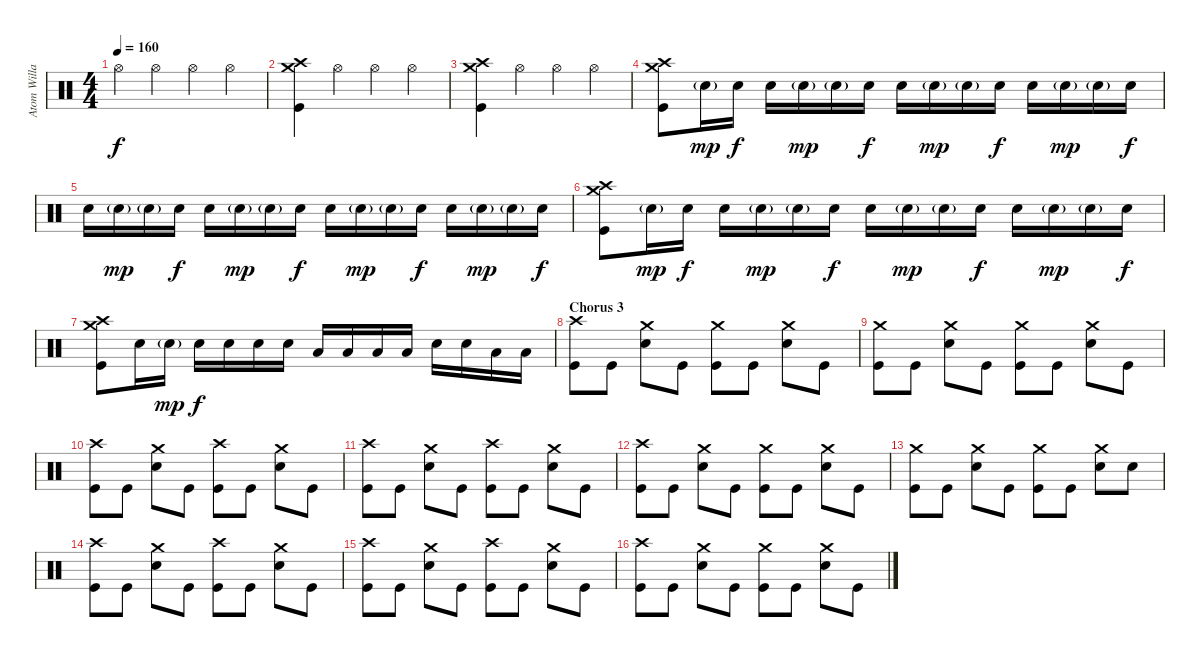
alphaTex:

\track ("Atom Willard - Drums" "Atom Willa") {instrument percussion}
\staff {score}
\articulation defaults
\ts (4 4)
\tempo 160
\clef neutral
\ks c "Hi-Hat (open)".4{dy f} "Hi-Hat (open)".4 "Hi-Hat (open)".4 "Hi-Hat (open)".4
|
("Crash medium (hit)" "Crash high (hit)" "Kick (hit)").4 "Hi-Hat (open)".4 "Hi-Hat (open)".4 "Hi-Hat (open)".4 |
("Crash medium (hit)" "Crash high (hit)" "Kick (hit)").4 "Hi-Hat (open)".4 "Hi-Hat (open)".4 "Hi-Hat (open)".4 |
("Crash high (hit)" "Crash medium (hit)" "Kick (hit)").8 "Electric Snare (hit)"{g}.16{dy mp} "Electric Snare (hit)".16{dy f} "Electric Snare (hit)".16 "Electric Snare (hit)"{g}.16{dy mp} "Electric Snare (hit)"{g}.16 "Electric Snare (hit)".16{dy f} "Electric Snare (hit)".16 "Electric Snare (hit)"{g}.16{dy mp} "Electric Snare (hit)"{g}.16 "Electric Snare (hit)".16{dy f} "Electric Snare (hit)".16 "Electric Snare (hit)"{g}.16{dy mp} "Electric Snare (hit)"{g}.16 "Electric Snare (hit)".16{dy f} |
"Electric Snare (hit)".16 "Electric Snare (hit)"{g}.16{dy mp} "Electric Snare (hit)"{g}.16 "Electric Snare (hit)".16{dy f} "Electric Snare (hit)".16 "Electric Snare (hit)"{g}.16{dy mp} "Electric Snare (hit)"{g}.16 "Electric Snare (hit)".16{dy f} "Electric Snare (hit)".16 "Electric Snare (hit)"{g}.16{dy mp} "Electric Snare (hit)"{g}.16 "Electric Snare (hit)".16{dy f} "Electric Snare (hit)".16 "Electric Snare (hit)"{g}.16{dy mp} "Electric Snare (hit)"{g}.16 "Electric Snare (hit)".16{dy f} |
("Crash high (hit)" "Crash medium (hit)" "Kick (hit)").8 "Electric Snare (hit)"{g}.16{dy mp} "Electric Snare (hit)".16{dy f} "Electric Snare (hit)".16 "Electric Snare (hit)"{g}.16{dy mp} "Electric Snare (hit)"{g}.16 "Electric Snare (hit)".16{dy f} "Electric Snare (hit)".16 "Electric Snare (hit)"{g}.16{dy mp} "Electric Snare (hit)"{g}.16 "Electric Snare (hit)".16{dy f} "Electric Snare (hit)".16 "Electric Snare (hit)"{g}.16{dy mp} "Electric Snare (hit)"{g}.16 "Electric Snare (hit)".16{dy f} |
("Crash high (hit)" "Crash medium (hit)" "Kick (hit)").8 "Electric Snare (hit)".16 "Electric Snare (hit)"{g}.16{dy mp} "Electric Snare (hit)".16{dy f} "Electric Snare (hit)".16 "Electric Snare (hit)".16 "Electric Snare (hit)".16 "Low Tom (hit)".16 "Low Tom (hit)".16 "Low Tom (hit)".16 "Low Tom (hit)".16 "Electric Snare (hit)".16 "Electric Snare (hit)".16 "Low Floor Tom (hit)".16 "Low Floor Tom (hit)".16 |
\section ("" "Chorus 3")
("Crash high (hit)" "Kick (hit)").8 "Kick (hit)".8 ("Crash medium (hit)" "Electric Snare (hit)").8 "Kick (hit)".8 ("Crash medium (hit)" "Kick (hit)").8 "Kick (hit)".8 ("Crash medium (hit)" "Electric Snare (hit)").8 "Kick (hit)".8 |
("Crash medium (hit)" "Kick (hit)").8 "Kick (hit)".8 ("Crash medium (hit)" "Electric Snare (hit)").8 "Kick (hit)".8 ("Crash medium (hit)" "Kick (hit)").8 "Kick (hit)".8 ("Crash medium (hit)" "Electric Snare (hit)").8 "Kick (hit)".8 |
("Crash high (hit)" "Kick (hit)").8 "Kick (hit)".8 ("Crash medium (hit)" "Electric Snare (hit)").8 "Kick (hit)".8 ("Crash high (hit)" "Kick (hit)").8 "Kick (hit)".8 ("Crash medium (hit)" "Electric Snare (hit)").8 "Kick (hit)".8 |
("Crash high (hit)" "Kick (hit)").8 "Kick (hit)".8 ("Crash medium (hit)" "Electric Snare (hit)").8 "Kick (hit)".8 ("Crash high (hit)" "Kick (hit)").8 "Kick (hit)".8 ("Crash medium (hit)" "Electric Snare (hit)").8 "Kick (hit)".8 |
("Crash high (hit)" "Kick (hit)").8 "Kick (hit)".8 ("Crash medium (hit)" "Electric Snare (hit)").8 "Kick (hit)".8 ("Crash medium (hit)" "Kick (hit)").8 "Kick (hit)".8 ("Crash medium (hit)" "Electric Snare (hit)").8 "Kick (hit)".8 |
("Crash medium (hit)" "Kick (hit)").8 "Kick (hit)".8 ("Crash medium (hit)" "Electric Snare (hit)").8 "Kick (hit)".8 ("Crash medium (hit)" "Kick (hit)").8 "Kick (hit)".8 ("Crash medium (hit)" "Electric Snare (hit)").8 "Electric Snare (hit)".8 |
("Crash high (hit)" "Kick (hit)").8 "Kick (hit)".8 ("Crash medium (hit)" "Electric Snare (hit)").8 "Kick (hit)".8 ("Crash high (hit)" "Kick (hit)").8 "Kick (hit)".8 ("Crash medium (hit)" "Electric Snare (hit)").8 "Kick (hit)".8 |
("Crash high (hit)" "Kick (hit)").8 "Kick (hit)".8 ("Crash medium (hit)" "Electric Snare (hit)").8 "Kick (hit)".8 ("Crash high (hit)" "Kick (hit)").8 "Kick (hit)".8 ("Crash medium (hit)" "Electric Snare (hit)").8 "Kick (hit)".8 |
("Crash high (hit)" "Kick (hit)").8 "Kick (hit)".8 ("Crash medium (hit)" "Electric Snare (hit)").8 "Kick (hit)".8 ("Crash medium (hit)" "Kick (hit)").8 "Kick (hit)".8 ("Crash medium (hit)" "Electric Snare (hit)").8 "Kick (hit)".8
